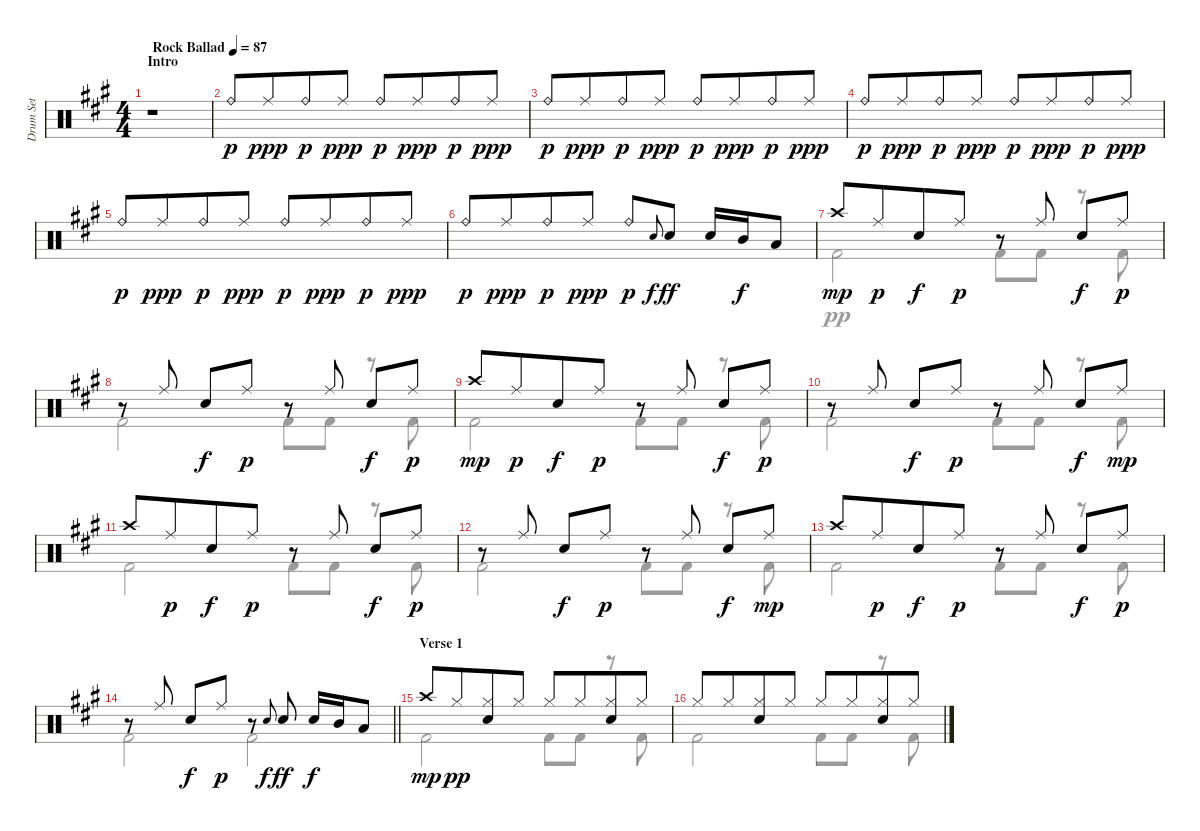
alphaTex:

\track ("Drum Set" "Drum Set") {instrument percussion}
\staff {score}
\articulation defaults
\voice
\ts (4 4)
\section ("" "Intro")
\tempo (87 "Rock Ballad")
\clef neutral
\ks f#minor
r.1{dy p} |
"Ride (bell)".8{volume 4 beam Up} "Ride (middle)".8{dy ppp beam Up beam merge} "Ride (bell)".8{dy p beam Up} "Ride (middle)".8{dy ppp beam Up} "Ride (bell)".8{dy p beam Up} "Ride (middle)".8{dy ppp beam Up beam merge} "Ride (bell)".8{dy p beam Up} "Ride (middle)".8{dy ppp beam Up} |
"Ride (bell)".8{dy p beam Up} "Ride (middle)".8{dy ppp beam Up beam merge} "Ride (bell)".8{dy p beam Up} "Ride (middle)".8{dy ppp beam Up} "Ride (bell)".8{dy p beam Up} "Ride (middle)".8{dy ppp beam Up beam merge} "Ride (bell)".8{dy p beam Up} "Ride (middle)".8{dy ppp beam Up} |
"Ride (bell)".8{dy p beam Up} "Ride (middle)".8{dy ppp beam Up beam merge} "Ride (bell)".8{dy p beam Up} "Ride (middle)".8{dy ppp beam Up} "Ride (bell)".8{dy p beam Up} "Ride (middle)".8{dy ppp beam Up beam merge} "Ride (bell)".8{dy p beam Up} "Ride (middle)".8{dy ppp beam Up} |
"Ride (bell)".8{dy p beam Up} "Ride (middle)".8{dy ppp beam Up beam merge} "Ride (bell)".8{dy p beam Up} "Ride (middle)".8{dy ppp beam Up} "Ride (bell)".8{dy p beam Up} "Ride (middle)".8{dy ppp beam Up beam merge} "Ride (bell)".8{dy p beam Up} "Ride (middle)".8{dy ppp beam Up} |
"Ride (bell)".8{dy p beam Up} "Ride (middle)".8{dy ppp beam Up beam merge} "Ride (bell)".8{dy p beam Up} "Ride (middle)".8{dy ppp beam Up} "Ride (bell)".8{dy p beam Up} "Electric Snare (hit)".8{gr onbeat dy f} "Electric Snare (hit)".8{dy ff volume 9 beam Up} "Electric Snare (hit)".16{beam Up} "Mid Tom (hit)".16{dy f beam Up} "Low Tom (hit)".8{beam Up} |
"Crash high (hit)".8{dy mp} "Ride (middle)".8{dy p beam merge} "Electric Snare (hit)".8{dy f} "Ride (middle)".8{dy p} r.8 "Ride (middle)".8 "Electric Snare (hit)".8{dy f} "Ride (middle)".8{dy p} |
r.8 "Ride (middle)".8 "Electric Snare (hit)".8{dy f} "Ride (middle)".8{dy p} r.8 "Ride (middle)".8 "Electric Snare (hit)".8{dy f} "Ride (middle)".8{dy p} |
"Crash high (hit)".8{dy mp} "Ride (middle)".8{dy p beam merge} "Electric Snare (hit)".8{dy f} "Ride (middle)".8{dy p} r.8 "Ride (middle)".8 "Electric Snare (hit)".8{dy f} "Ride (middle)".8{dy p} |
r.8 "Ride (middle)".8 "Electric Snare (hit)".8{dy f} "Ride (middle)".8{dy p} r.8 "Ride (middle)".8 "Electric Snare (hit)".8{dy f} "Ride (middle)".8{dy mp} |
"Crash high (hit)".8 "Ride (middle)".8{dy p beam merge} "Electric Snare (hit)".8{dy f} "Ride (middle)".8{dy p} r.8 "Ride (middle)".8 "Electric Snare (hit)".8{dy f} "Ride (middle)".8{dy p} |
r.8 "Ride (middle)".8 "Electric Snare (hit)".8{dy f} "Ride (middle)".8{dy p} r.8 "Ride (middle)".8 "Electric Snare (hit)".8{dy f} "Ride (middle)".8{dy mp} |
"Crash high (hit)".8 "Ride (middle)".8{dy p beam merge} "Electric Snare (hit)".8{dy f} "Ride (middle)".8{dy p} r.8 "Ride (middle)".8 "Electric Snare (hit)".8{dy f} "Ride (middle)".8{dy p} |
\barLineRight lightlight
r.8 "Ride (middle)".8 "Electric Snare (hit)".8{dy f} "Ride (middle)".8{dy p} r.8 "Electric Snare (hit)".8{gr onbeat dy f} "Electric Snare (hit)".8{dy ff} "Electric Snare (hit)".16{dy f} "Mid Tom (hit)".16 "Low Tom (hit)".8 |
\section ("" "Verse 1")
"Crash high (hit)".8{dy mp} "Hi-Hat (closed)".8{dy pp beam merge} ("Hi-Hat (closed)" "Electric Snare (hit)").8 "Hi-Hat (closed)".8 "Hi-Hat (closed)".8 "Hi-Hat (closed)".8{beam merge} ("Hi-Hat (closed)" "Electric Snare (hit)").8 "Hi-Hat (closed)".8 |
"Hi-Hat (closed)".8 "Hi-Hat (closed)".8{beam merge} ("Hi-Hat (closed)" "Electric Snare (hit)").8 "Hi-Hat (closed)".8 "Hi-Hat (closed)".8 "Hi-Hat (closed)".8{beam merge} ("Hi-Hat (closed)" "Electric Snare (hit)").8 "Hi-Hat (closed)".8
\voice
\clef neutral
\ottava regular
\simile none
\ks f#minor
|
|
|
|
|
|
"Kick (hit) 2".2 "Kick (hit) 2".8 "Kick (hit) 2".8 r.8 "Kick (hit) 2".8 |
"Kick (hit) 2".2 "Kick (hit) 2".8 "Kick (hit) 2".8 r.8 "Kick (hit) 2".8 |
"Kick (hit) 2".2 "Kick (hit) 2".8 "Kick (hit) 2".8 r.8 "Kick (hit) 2".8 |
"Kick (hit) 2".2 "Kick (hit) 2".8 "Kick (hit) 2".8 r.8 "Kick (hit) 2".8 |
"Kick (hit) 2".2 "Kick (hit) 2".8 "Kick (hit) 2".8 r.8 "Kick (hit) 2".8 |
"Kick (hit) 2".2 "Kick (hit) 2".8 "Kick (hit) 2".8 r.8 "Kick (hit) 2".8 |
"Kick (hit) 2".2 "Kick (hit) 2".8 "Kick (hit) 2".8 r.8 "Kick (hit) 2".8 |
\barLineRight lightlight "Kick (hit) 2".2 "Kick (hit) 2".2
|
"Kick (hit) 2".2 "Kick (hit) 2".8 "Kick (hit) 2".8 r.8 "Kick (hit) 2".8 |
"Kick (hit) 2".2 "Kick (hit) 2".8 "Kick (hit) 2".8 r.8 "Kick (hit) 2".8
